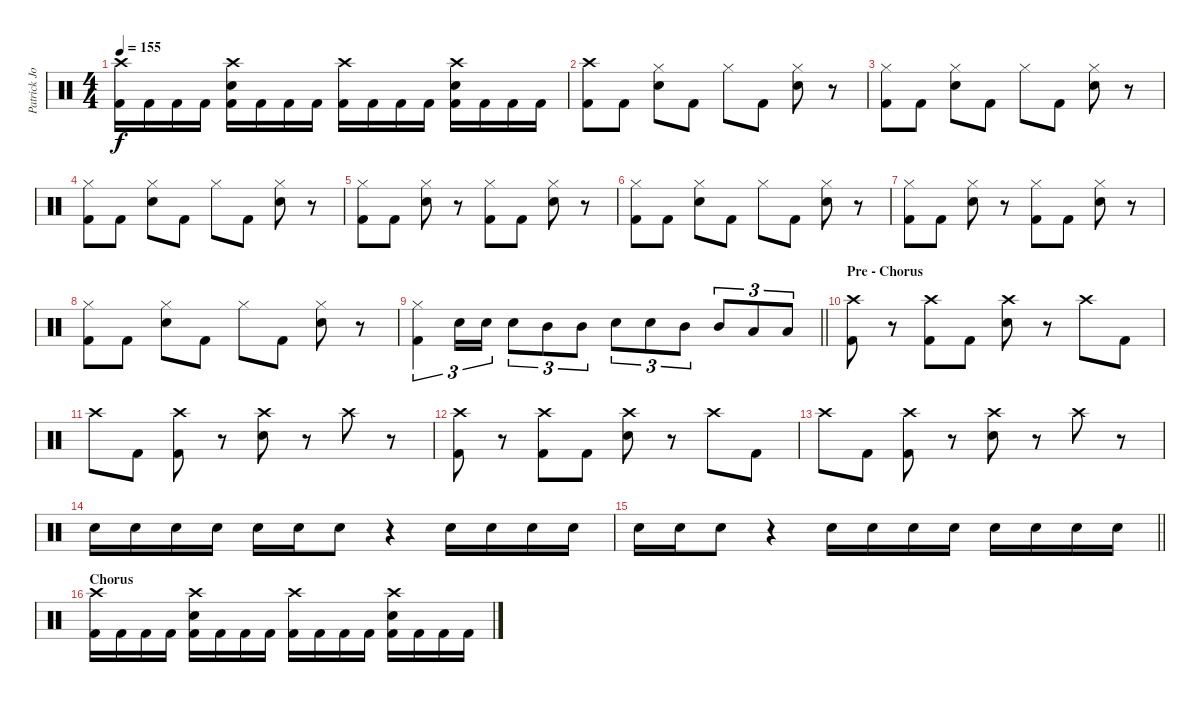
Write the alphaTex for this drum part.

\track ("Patrick Johansson" "Patrick Jo") {instrument percussion}
\staff {score}
\articulation defaults
\ts (4 4)
\tempo 155
\clef neutral
\ks c
("Crash high (hit)" "Kick (hit) 2").16{dy f} "Kick (hit) 2".16 "Kick (hit) 2".16 "Kick (hit) 2".16 ("Crash high (hit)" "Electric Snare (hit)" "Kick (hit) 2").16 "Kick (hit) 2".16 "Kick (hit) 2".16 "Kick (hit) 2".16 ("Crash high (hit)" "Kick (hit) 2").16 "Kick (hit) 2".16 "Kick (hit) 2".16 "Kick (hit) 2".16 ("Crash high (hit)" "Electric Snare (hit)" "Kick (hit) 2").16 "Kick (hit) 2".16 "Kick (hit) 2".16 "Kick (hit) 2".16 |
("Crash high (hit)" "Kick (hit) 2").8 "Kick (hit) 2".8 ("Electric Snare (hit)" "Hi-Hat (closed)").8 "Kick (hit) 2".8 "Hi-Hat (closed)".8 "Kick (hit) 2".8 ("Electric Snare (hit)" "Hi-Hat (closed)").8 r.8 |
("Hi-Hat (closed)" "Kick (hit) 2").8 "Kick (hit) 2".8 ("Electric Snare (hit)" "Hi-Hat (closed)").8 "Kick (hit) 2".8 "Hi-Hat (closed)".8 "Kick (hit) 2".8 ("Electric Snare (hit)" "Hi-Hat (closed)").8 r.8 |
("Hi-Hat (closed)" "Kick (hit) 2").8 "Kick (hit) 2".8 ("Electric Snare (hit)" "Hi-Hat (closed)").8 "Kick (hit) 2".8 "Hi-Hat (closed)".8 "Kick (hit) 2".8 ("Electric Snare (hit)" "Hi-Hat (closed)").8 r.8 |
("Hi-Hat (closed)" "Kick (hit) 2").8 "Kick (hit) 2".8 ("Electric Snare (hit)" "Hi-Hat (closed)").8 r.8 ("Hi-Hat (closed)" "Kick (hit) 2").8 "Kick (hit) 2".8 ("Electric Snare (hit)" "Hi-Hat (closed)").8 r.8 |
("Hi-Hat (closed)" "Kick (hit) 2").8 "Kick (hit) 2".8 ("Electric Snare (hit)" "Hi-Hat (closed)").8 "Kick (hit) 2".8 "Hi-Hat (closed)".8 "Kick (hit) 2".8 ("Electric Snare (hit)" "Hi-Hat (closed)").8 r.8 |
("Hi-Hat (closed)" "Kick (hit) 2").8 "Kick (hit) 2".8 ("Electric Snare (hit)" "Hi-Hat (closed)").8 r.8 ("Hi-Hat (closed)" "Kick (hit) 2").8 "Kick (hit) 2".8 ("Electric Snare (hit)" "Hi-Hat (closed)").8 r.8 |
("Hi-Hat (closed)" "Kick (hit) 2").8 "Kick (hit) 2".8 ("Electric Snare (hit)" "Hi-Hat (closed)").8 "Kick (hit) 2".8 "Hi-Hat (closed)".8 "Kick (hit) 2".8 ("Electric Snare (hit)" "Hi-Hat (closed)").8 r.8 |
\barLineRight lightlight
("Hi-Hat (closed)" "Kick (hit) 2").4{tu (3 2)} "Electric Snare (hit)".16{tu (3 2)} "Electric Snare (hit)".16{tu (3 2)} "Electric Snare (hit)".8{tu (3 2)} "Mid Tom (hit)".8{tu (3 2)} "Mid Tom (hit)".8{tu (3 2)} "Electric Snare (hit)".8{tu (3 2)} "Electric Snare (hit)".8{tu (3 2)} "Mid Tom (hit)".8{tu (3 2)} "Mid Tom (hit)".8{tu (3 2)} "Low Tom (hit)".8{tu (3 2)} "Low Tom (hit)".8{tu (3 2)} |
\section ("" "Pre - Chorus")
("Crash high (hit)" "Kick (hit) 2").8 r.8 ("Crash high (hit)" "Kick (hit) 2").8 "Kick (hit) 2".8 ("Crash high (hit)" "Electric Snare (hit)").8 r.8 "Crash high (hit)".8 "Kick (hit) 2".8 |
"Crash high (hit)".8 "Kick (hit) 2".8 ("Crash high (hit)" "Kick (hit) 2").8 r.8 ("Crash high (hit)" "Electric Snare (hit)").8 r.8 "Crash high (hit)".8 r.8 |
("Crash high (hit)" "Kick (hit) 2").8 r.8 ("Crash high (hit)" "Kick (hit) 2").8 "Kick (hit) 2".8 ("Crash high (hit)" "Electric Snare (hit)").8 r.8 "Crash high (hit)".8 "Kick (hit) 2".8 |
"Crash high (hit)".8 "Kick (hit) 2".8 ("Crash high (hit)" "Kick (hit) 2").8 r.8 ("Crash high (hit)" "Electric Snare (hit)").8 r.8 "Crash high (hit)".8 r.8 |
"Electric Snare (hit)".16 "Electric Snare (hit)".16 "Electric Snare (hit)".16 "Electric Snare (hit)".16 "Electric Snare (hit)".16 "Electric Snare (hit)".16 "Electric Snare (hit)".8 r.4 "Electric Snare (hit)".16 "Electric Snare (hit)".16 "Electric Snare (hit)".16 "Electric Snare (hit)".16 |
\barLineRight lightlight "Electric Snare (hit)".16 "Electric Snare (hit)".16 "Electric Snare (hit)".8
r.4 "Electric Snare (hit)".16 "Electric Snare (hit)".16 "Electric Snare (hit)".16 "Electric Snare (hit)".16 "Electric Snare (hit)".16 "Electric Snare (hit)".16 "Electric Snare (hit)".16 "Electric Snare (hit)".16 |
\section ("" "Chorus")
("Crash high (hit)" "Kick (hit) 2").16 "Kick (hit) 2".16 "Kick (hit) 2".16 "Kick (hit) 2".16 ("Crash high (hit)" "Electric Snare (hit)" "Kick (hit) 2").16 "Kick (hit) 2".16 "Kick (hit) 2".16 "Kick (hit) 2".16 ("Crash high (hit)" "Kick (hit) 2").16 "Kick (hit) 2".16 "Kick (hit) 2".16 "Kick (hit) 2".16 ("Crash high (hit)" "Electric Snare (hit)" "Kick (hit) 2").16 "Kick (hit) 2".16 "Kick (hit) 2".16 "Kick (hit) 2".16
